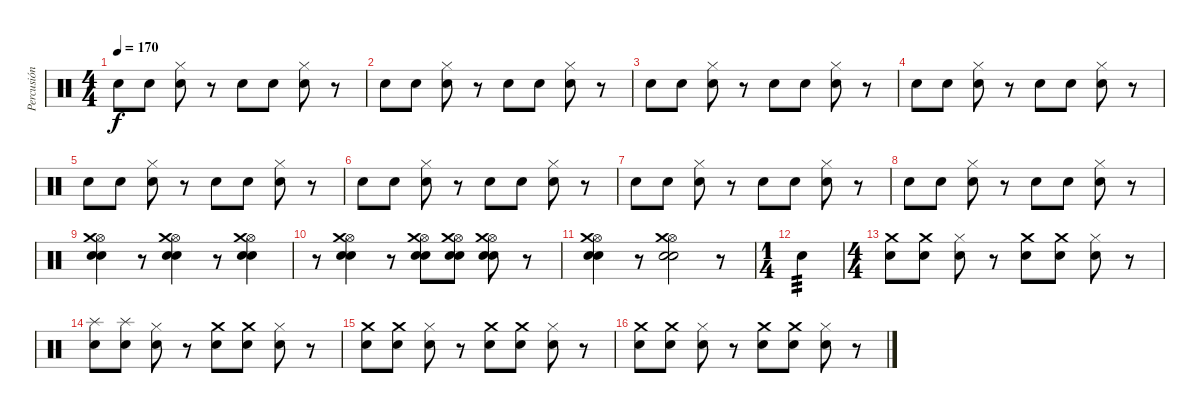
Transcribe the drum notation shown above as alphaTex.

\track ("Percusión" "Percusión") {instrument percussion}
\staff {score}
\articulation defaults
\ts (4 4)
\tempo 170
\clef neutral
\ks c "Electric Snare (hit)".8{dy f} "Electric Snare (hit)".8
("Hi-Hat (closed)" "Snare (hit) 2").8 r.8 "Electric Snare (hit)".8 "Electric Snare (hit)".8 ("Hi-Hat (closed)" "Snare (hit) 2").8 r.8 |
"Electric Snare (hit)".8 "Electric Snare (hit)".8 ("Hi-Hat (closed)" "Snare (hit) 2").8 r.8 "Electric Snare (hit)".8 "Electric Snare (hit)".8 ("Hi-Hat (closed)" "Snare (hit) 2").8 r.8 |
"Electric Snare (hit)".8 "Electric Snare (hit)".8 ("Hi-Hat (closed)" "Snare (hit) 2").8 r.8 "Electric Snare (hit)".8 "Electric Snare (hit)".8 ("Hi-Hat (closed)" "Snare (hit) 2").8 r.8 |
"Electric Snare (hit)".8 "Electric Snare (hit)".8 ("Hi-Hat (closed)" "Snare (hit) 2").8 r.8 "Electric Snare (hit)".8 "Electric Snare (hit)".8 ("Hi-Hat (closed)" "Snare (hit) 2").8 r.8 |
"Electric Snare (hit)".8 "Electric Snare (hit)".8 ("Hi-Hat (closed)" "Snare (hit) 2").8 r.8 "Electric Snare (hit)".8 "Electric Snare (hit)".8 ("Hi-Hat (closed)" "Snare (hit) 2").8 r.8 |
"Electric Snare (hit)".8 "Electric Snare (hit)".8 ("Hi-Hat (closed)" "Snare (hit) 2").8 r.8 "Electric Snare (hit)".8 "Electric Snare (hit)".8 ("Hi-Hat (closed)" "Snare (hit) 2").8 r.8 |
"Electric Snare (hit)".8 "Electric Snare (hit)".8 ("Hi-Hat (closed)" "Snare (hit) 2").8 r.8 "Electric Snare (hit)".8 "Electric Snare (hit)".8 ("Hi-Hat (closed)" "Snare (hit) 2").8 r.8 |
"Electric Snare (hit)".8 "Electric Snare (hit)".8 ("Hi-Hat (closed)" "Snare (hit) 2").8 r.8 "Electric Snare (hit)".8 "Electric Snare (hit)".8 ("Hi-Hat (closed)" "Snare (hit) 2").8 r.8 |
("Hi-Hat (open)" "Crash medium (hit)" "Electric Snare (hit)" "Snare (hit) 2").4 r.8 ("Hi-Hat (open)" "Crash medium (hit)" "Electric Snare (hit)" "Snare (hit) 2").4 r.8 ("Hi-Hat (open)" "Crash medium (hit)" "Electric Snare (hit)" "Snare (hit) 2").4 |
r.8 ("Hi-Hat (open)" "Crash medium (hit)" "Electric Snare (hit)" "Snare (hit) 2").4 r.8 ("Hi-Hat (open)" "Crash medium (hit)" "Electric Snare (hit)" "Snare (hit) 2").8 ("Hi-Hat (open)" "Crash medium (hit)" "Electric Snare (hit)" "Snare (hit) 2").8 ("Hi-Hat (open)" "Crash medium (hit)" "Electric Snare (hit)" "Snare (hit) 2").8 r.8 |
("Hi-Hat (open)" "Crash medium (hit)" "Electric Snare (hit)" "Snare (hit) 2").4 r.8 ("Hi-Hat (open)" "Crash medium (hit)" "Electric Snare (hit)" "Snare (hit) 2").2 r.8 |
\ts (1 4)
"Snare (hit) 2".4{tp 3} |
\ts (4 4)
("Electric Snare (hit)" "Crash medium (hit)").8{volume 11} ("Electric Snare (hit)" "Crash medium (hit)").8 ("Hi-Hat (closed)" "Snare (hit) 2").8 r.8 ("Electric Snare (hit)" "Crash medium (hit)").8 ("Electric Snare (hit)" "Crash medium (hit)").8 ("Hi-Hat (closed)" "Snare (hit) 2").8 r.8 |
("Electric Snare (hit)" "Splash (hit)").8 ("Electric Snare (hit)" "Splash (hit)").8 ("Hi-Hat (closed)" "Snare (hit) 2").8 r.8 ("Electric Snare (hit)" "Crash medium (hit)").8 ("Electric Snare (hit)" "Crash medium (hit)").8 ("Hi-Hat (closed)" "Snare (hit) 2").8 r.8 |
("Electric Snare (hit)" "Crash medium (hit)").8 ("Electric Snare (hit)" "Crash medium (hit)").8 ("Hi-Hat (closed)" "Snare (hit) 2").8 r.8 ("Electric Snare (hit)" "Crash medium (hit)").8 ("Electric Snare (hit)" "Crash medium (hit)").8 ("Hi-Hat (closed)" "Snare (hit) 2").8 r.8 |
("Electric Snare (hit)" "Crash medium (hit)").8 ("Electric Snare (hit)" "Crash medium (hit)").8 ("Hi-Hat (closed)" "Snare (hit) 2").8 r.8 ("Electric Snare (hit)" "Crash medium (hit)").8 ("Electric Snare (hit)" "Crash medium (hit)").8 ("Hi-Hat (closed)" "Snare (hit) 2").8 r.8
